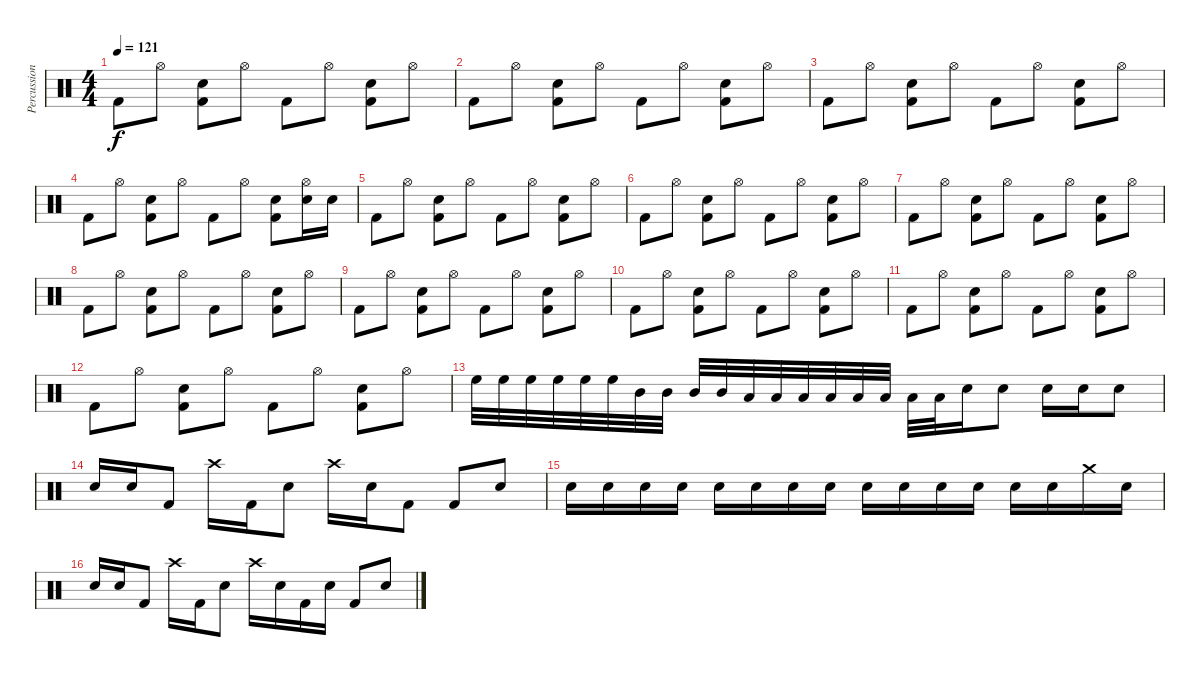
\track ("Percussions" "Percussion") {instrument percussion}
\staff {score}
\articulation defaults
\ts (4 4)
\tempo 121
\clef neutral
\ks c "Kick (hit) 2".8{dy f} "Hi-Hat (open)".8
("Kick (hit) 2" "Electric Snare (hit)").8 "Hi-Hat (open)".8 "Kick (hit) 2".8 "Hi-Hat (open)".8 ("Kick (hit) 2" "Electric Snare (hit)").8 "Hi-Hat (open)".8 |
"Kick (hit) 2".8 "Hi-Hat (open)".8 ("Kick (hit) 2" "Electric Snare (hit)").8 "Hi-Hat (open)".8 "Kick (hit) 2".8 "Hi-Hat (open)".8 ("Kick (hit) 2" "Electric Snare (hit)").8 "Hi-Hat (open)".8 |
"Kick (hit) 2".8 "Hi-Hat (open)".8 ("Kick (hit) 2" "Electric Snare (hit)").8 "Hi-Hat (open)".8 "Kick (hit) 2".8 "Hi-Hat (open)".8 ("Kick (hit) 2" "Electric Snare (hit)").8 "Hi-Hat (open)".8 |
"Kick (hit) 2".8 "Hi-Hat (open)".8 ("Kick (hit) 2" "Electric Snare (hit)").8 "Hi-Hat (open)".8 "Kick (hit) 2".8 "Hi-Hat (open)".8 ("Kick (hit) 2" "Electric Snare (hit)").8 ("Hi-Hat (open)" "Electric Snare (hit)").16 "Electric Snare (hit)".16 |
"Kick (hit) 2".8 "Hi-Hat (open)".8 ("Kick (hit) 2" "Electric Snare (hit)").8 "Hi-Hat (open)".8 "Kick (hit) 2".8 "Hi-Hat (open)".8 ("Kick (hit) 2" "Electric Snare (hit)").8 "Hi-Hat (open)".8 |
"Kick (hit) 2".8 "Hi-Hat (open)".8 ("Kick (hit) 2" "Electric Snare (hit)").8 "Hi-Hat (open)".8 "Kick (hit) 2".8 "Hi-Hat (open)".8 ("Kick (hit) 2" "Electric Snare (hit)").8 "Hi-Hat (open)".8 |
"Kick (hit) 2".8 "Hi-Hat (open)".8 ("Kick (hit) 2" "Electric Snare (hit)").8 "Hi-Hat (open)".8 "Kick (hit) 2".8 "Hi-Hat (open)".8 ("Kick (hit) 2" "Electric Snare (hit)").8 "Hi-Hat (open)".8 |
"Kick (hit) 2".8 "Hi-Hat (open)".8 ("Kick (hit) 2" "Electric Snare (hit)").8 "Hi-Hat (open)".8 "Kick (hit) 2".8 "Hi-Hat (open)".8 ("Kick (hit) 2" "Electric Snare (hit)").8 "Hi-Hat (open)".8 |
"Kick (hit) 2".8 "Hi-Hat (open)".8 ("Kick (hit) 2" "Electric Snare (hit)").8 "Hi-Hat (open)".8 "Kick (hit) 2".8 "Hi-Hat (open)".8 ("Kick (hit) 2" "Electric Snare (hit)").8 "Hi-Hat (open)".8 |
"Kick (hit) 2".8 "Hi-Hat (open)".8 ("Kick (hit) 2" "Electric Snare (hit)").8 "Hi-Hat (open)".8 "Kick (hit) 2".8 "Hi-Hat (open)".8 ("Kick (hit) 2" "Electric Snare (hit)").8 "Hi-Hat (open)".8 |
"Kick (hit) 2".8 "Hi-Hat (open)".8 ("Kick (hit) 2" "Electric Snare (hit)").8 "Hi-Hat (open)".8 "Kick (hit) 2".8 "Hi-Hat (open)".8 ("Kick (hit) 2" "Electric Snare (hit)").8 "Hi-Hat (open)".8 |
"Kick (hit) 2".8 "Hi-Hat (open)".8 ("Kick (hit) 2" "Electric Snare (hit)").8 "Hi-Hat (open)".8 "Kick (hit) 2".8 "Hi-Hat (open)".8 ("Kick (hit) 2" "Electric Snare (hit)").8 "Hi-Hat (open)".8 |
"High Floor Tom (hit)".32 "High Floor Tom (hit)".32 "High Floor Tom (hit)".32 "High Floor Tom (hit)".32 "High Floor Tom (hit)".32 "High Floor Tom (hit)".32 "Mid Tom (hit)".32 "Mid Tom (hit)".32 "Mid Tom (hit)".32 "Mid Tom (hit)".32 "Low Tom (hit)".32 "Low Tom (hit)".32 "Low Tom (hit)".32 "Low Tom (hit)".32 "Low Floor Tom (hit)".32 "Low Floor Tom (hit)".32 "Low Floor Tom (hit)".32 "Low Floor Tom (hit)".32 "Electric Snare (hit)".16 "Electric Snare (hit)".8 "Electric Snare (hit)".16 "Electric Snare (hit)".16 "Electric Snare (hit)".8 |
"Electric Snare (hit)".16 "Electric Snare (hit)".16 "Kick (hit) 2".8 "Crash high (hit)".16 "Kick (hit) 2".16 "Electric Snare (hit)".8 "Crash high (hit)".16 "Electric Snare (hit)".16 "Kick (hit) 2".8 "Kick (hit) 2".8 "Electric Snare (hit)".8 |
"Electric Snare (hit)".16 "Electric Snare (hit)".16 "Electric Snare (hit)".16 "Electric Snare (hit)".16 "Electric Snare (hit)".16 "Electric Snare (hit)".16 "Electric Snare (hit)".16 "Electric Snare (hit)".16 "Electric Snare (hit)".16 "Electric Snare (hit)".16 "Electric Snare (hit)".16 "Electric Snare (hit)".16 "Electric Snare (hit)".16 "Electric Snare (hit)".16 "Crash medium (hit)".16 "Electric Snare (hit)".16 |
"Electric Snare (hit)".16 "Electric Snare (hit)".16 "Kick (hit) 2".8 "Crash high (hit)".16 "Kick (hit) 2".16 "Electric Snare (hit)".8 "Crash high (hit)".16 "Electric Snare (hit)".16 "Kick (hit) 2".16 "Electric Snare (hit)".16 "Kick (hit) 2".8 "Electric Snare (hit)".8
